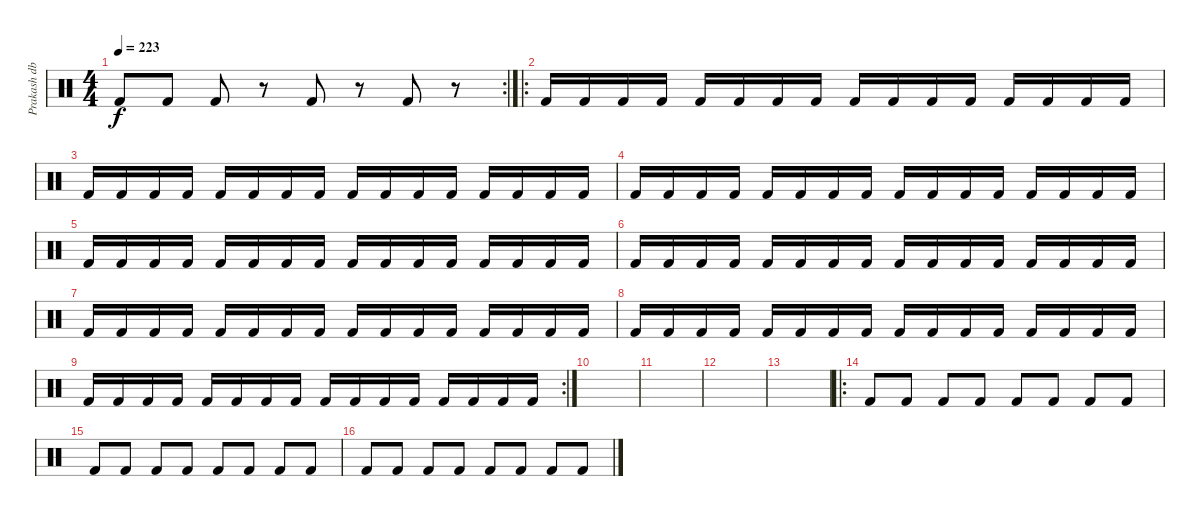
\track ("Prakash db" "Prakash db") {instrument percussion}
\staff {score}
\articulation defaults
\rc 2
\ts (4 4)
\tempo 223
\clef neutral
\ks c "Kick (hit) 2".8{dy f} "Kick (hit) 2".8 "Kick (hit) 2".8
r.8 "Kick (hit) 2".8 r.8 "Kick (hit) 2".8 r.8 |
\ro "Kick (hit) 2".16 "Kick (hit) 2".16 "Kick (hit) 2".16 "Kick (hit) 2".16 "Kick (hit) 2".16 "Kick (hit) 2".16 "Kick (hit) 2".16 "Kick (hit) 2".16 "Kick (hit) 2".16 "Kick (hit) 2".16 "Kick (hit) 2".16 "Kick (hit) 2".16 "Kick (hit) 2".16 "Kick (hit) 2".16 "Kick (hit) 2".16 "Kick (hit) 2".16
|
"Kick (hit) 2".16 "Kick (hit) 2".16 "Kick (hit) 2".16 "Kick (hit) 2".16 "Kick (hit) 2".16 "Kick (hit) 2".16 "Kick (hit) 2".16 "Kick (hit) 2".16 "Kick (hit) 2".16 "Kick (hit) 2".16 "Kick (hit) 2".16 "Kick (hit) 2".16 "Kick (hit) 2".16 "Kick (hit) 2".16 "Kick (hit) 2".16 "Kick (hit) 2".16 |
"Kick (hit) 2".16 "Kick (hit) 2".16 "Kick (hit) 2".16 "Kick (hit) 2".16 "Kick (hit) 2".16 "Kick (hit) 2".16 "Kick (hit) 2".16 "Kick (hit) 2".16 "Kick (hit) 2".16 "Kick (hit) 2".16 "Kick (hit) 2".16 "Kick (hit) 2".16 "Kick (hit) 2".16 "Kick (hit) 2".16 "Kick (hit) 2".16 "Kick (hit) 2".16 |
"Kick (hit) 2".16 "Kick (hit) 2".16 "Kick (hit) 2".16 "Kick (hit) 2".16 "Kick (hit) 2".16 "Kick (hit) 2".16 "Kick (hit) 2".16 "Kick (hit) 2".16 "Kick (hit) 2".16 "Kick (hit) 2".16 "Kick (hit) 2".16 "Kick (hit) 2".16 "Kick (hit) 2".16 "Kick (hit) 2".16 "Kick (hit) 2".16 "Kick (hit) 2".16 |
"Kick (hit) 2".16 "Kick (hit) 2".16 "Kick (hit) 2".16 "Kick (hit) 2".16 "Kick (hit) 2".16 "Kick (hit) 2".16 "Kick (hit) 2".16 "Kick (hit) 2".16 "Kick (hit) 2".16 "Kick (hit) 2".16 "Kick (hit) 2".16 "Kick (hit) 2".16 "Kick (hit) 2".16 "Kick (hit) 2".16 "Kick (hit) 2".16 "Kick (hit) 2".16 |
"Kick (hit) 2".16 "Kick (hit) 2".16 "Kick (hit) 2".16 "Kick (hit) 2".16 "Kick (hit) 2".16 "Kick (hit) 2".16 "Kick (hit) 2".16 "Kick (hit) 2".16 "Kick (hit) 2".16 "Kick (hit) 2".16 "Kick (hit) 2".16 "Kick (hit) 2".16 "Kick (hit) 2".16 "Kick (hit) 2".16 "Kick (hit) 2".16 "Kick (hit) 2".16 |
"Kick (hit) 2".16 "Kick (hit) 2".16 "Kick (hit) 2".16 "Kick (hit) 2".16 "Kick (hit) 2".16 "Kick (hit) 2".16 "Kick (hit) 2".16 "Kick (hit) 2".16 "Kick (hit) 2".16 "Kick (hit) 2".16 "Kick (hit) 2".16 "Kick (hit) 2".16 "Kick (hit) 2".16 "Kick (hit) 2".16 "Kick (hit) 2".16 "Kick (hit) 2".16 |
\rc 2 "Kick (hit) 2".16 "Kick (hit) 2".16 "Kick (hit) 2".16 "Kick (hit) 2".16 "Kick (hit) 2".16 "Kick (hit) 2".16 "Kick (hit) 2".16 "Kick (hit) 2".16 "Kick (hit) 2".16 "Kick (hit) 2".16 "Kick (hit) 2".16 "Kick (hit) 2".16 "Kick (hit) 2".16 "Kick (hit) 2".16 "Kick (hit) 2".16 "Kick (hit) 2".16
|
|
|
|
|
\ro "Kick (hit) 2".8 "Kick (hit) 2".8 "Kick (hit) 2".8 "Kick (hit) 2".8 "Kick (hit) 2".8 "Kick (hit) 2".8 "Kick (hit) 2".8 "Kick (hit) 2".8
|
"Kick (hit) 2".8 "Kick (hit) 2".8 "Kick (hit) 2".8 "Kick (hit) 2".8 "Kick (hit) 2".8 "Kick (hit) 2".8 "Kick (hit) 2".8 "Kick (hit) 2".8 |
"Kick (hit) 2".8 "Kick (hit) 2".8 "Kick (hit) 2".8 "Kick (hit) 2".8 "Kick (hit) 2".8 "Kick (hit) 2".8 "Kick (hit) 2".8 "Kick (hit) 2".8
